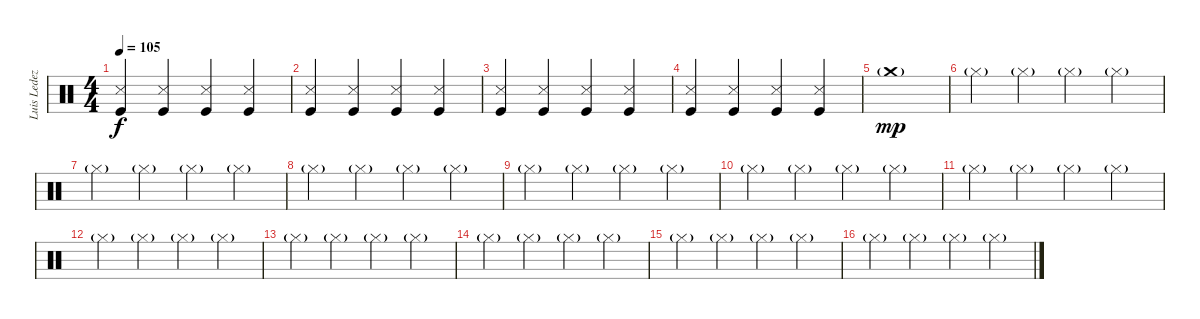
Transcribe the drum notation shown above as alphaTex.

\track ("Luis Ledezma (bateria)" "Luis Ledez") {instrument percussion}
\staff {score}
\articulation defaults
\ts (4 4)
\tempo 105
\clef neutral
\ks c
("Snare (side stick) 3" "Kick (hit)").4{dy f} ("Snare (side stick) 3" "Kick (hit)").4 ("Snare (side stick) 3" "Kick (hit)").4 ("Snare (side stick) 3" "Kick (hit)").4 |
("Snare (side stick) 3" "Kick (hit)").4 ("Snare (side stick) 3" "Kick (hit)").4 ("Snare (side stick) 3" "Kick (hit)").4 ("Snare (side stick) 3" "Kick (hit)").4 |
("Snare (side stick) 3" "Kick (hit)").4 ("Snare (side stick) 3" "Kick (hit)").4 ("Snare (side stick) 3" "Kick (hit)").4 ("Snare (side stick) 3" "Kick (hit)").4 |
("Snare (side stick) 3" "Kick (hit)").4 ("Snare (side stick) 3" "Kick (hit)").4 ("Snare (side stick) 3" "Kick (hit)").4 ("Snare (side stick) 3" "Kick (hit)").4 |
"Crash medium (hit)"{g}.1{dy mp} |
"Hi-Hat (closed)"{g}.4 "Hi-Hat (closed)"{g}.4 "Hi-Hat (closed)"{g}.4 "Hi-Hat (closed)"{g}.4 |
"Hi-Hat (closed)"{g}.4 "Hi-Hat (closed)"{g}.4 "Hi-Hat (closed)"{g}.4 "Hi-Hat (closed)"{g}.4 |
"Hi-Hat (closed)"{g}.4 "Hi-Hat (closed)"{g}.4 "Hi-Hat (closed)"{g}.4 "Hi-Hat (closed)"{g}.4 |
"Hi-Hat (closed)"{g}.4 "Hi-Hat (closed)"{g}.4 "Hi-Hat (closed)"{g}.4 "Hi-Hat (closed)"{g}.4 |
"Hi-Hat (closed)"{g}.4 "Hi-Hat (closed)"{g}.4 "Hi-Hat (closed)"{g}.4 "Hi-Hat (closed)"{g}.4 |
"Hi-Hat (closed)"{g}.4 "Hi-Hat (closed)"{g}.4 "Hi-Hat (closed)"{g}.4 "Hi-Hat (closed)"{g}.4 |
"Hi-Hat (closed)"{g}.4 "Hi-Hat (closed)"{g}.4 "Hi-Hat (closed)"{g}.4 "Hi-Hat (closed)"{g}.4 |
"Hi-Hat (closed)"{g}.4 "Hi-Hat (closed)"{g}.4 "Hi-Hat (closed)"{g}.4 "Hi-Hat (closed)"{g}.4 |
"Hi-Hat (closed)"{g}.4 "Hi-Hat (closed)"{g}.4 "Hi-Hat (closed)"{g}.4 "Hi-Hat (closed)"{g}.4 |
"Hi-Hat (closed)"{g}.4 "Hi-Hat (closed)"{g}.4 "Hi-Hat (closed)"{g}.4 "Hi-Hat (closed)"{g}.4 |
"Hi-Hat (closed)"{g}.4 "Hi-Hat (closed)"{g}.4 "Hi-Hat (closed)"{g}.4 "Hi-Hat (closed)"{g}.4
